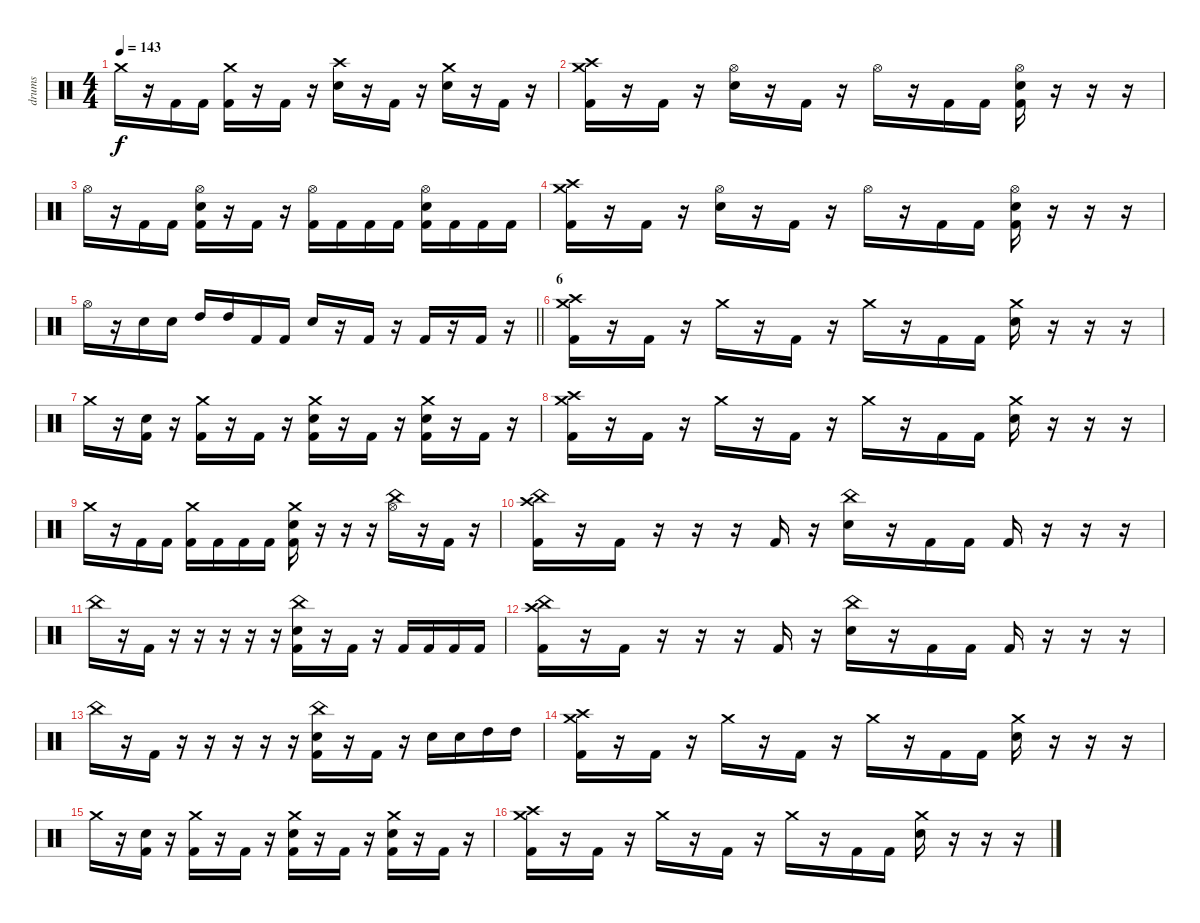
\track ("drums" "drums") {instrument percussion}
\staff {score}
\articulation defaults
\ts (4 4)
\tempo 143
\clef neutral
\ks c "Crash medium (hit)".16{dy f}
r.16 "Kick (hit) 2".16 "Kick (hit) 2".16 ("Crash medium (hit)" "Kick (hit) 2").16 r.16 "Kick (hit) 2".16 r.16 ("Crash high (hit)" "Electric Snare (hit)").16 r.16 "Kick (hit) 2".16 r.16 ("Crash medium (hit)" "Electric Snare (hit)").16 r.16 "Kick (hit) 2".16 r.16 |
("Crash high (hit)" "Crash medium (hit)" "Kick (hit) 2").16 r.16 "Kick (hit) 2".16 r.16 ("Hi-Hat (open)" "Electric Snare (hit)").16 r.16 "Kick (hit) 2".16 r.16 "Hi-Hat (open)".16 r.16 "Kick (hit) 2".16 "Kick (hit) 2".16 ("Hi-Hat (open)" "Electric Snare (hit)" "Kick (hit) 2").16 r.16 r.16 r.16 |
"Hi-Hat (open)".16 r.16 "Kick (hit) 2".16 "Kick (hit) 2".16 ("Hi-Hat (open)" "Electric Snare (hit)" "Kick (hit) 2").16 r.16 "Kick (hit) 2".16 r.16 ("Hi-Hat (open)" "Kick (hit) 2").16 "Kick (hit) 2".16 "Kick (hit) 2".16 "Kick (hit) 2".16 ("Hi-Hat (open)" "Electric Snare (hit)" "Kick (hit) 2").16 "Kick (hit) 2".16 "Kick (hit) 2".16 "Kick (hit) 2".16 |
("Crash medium (hit)" "Crash high (hit)" "Kick (hit) 2").16 r.16 "Kick (hit) 2".16 r.16 ("Hi-Hat (open)" "Electric Snare (hit)").16 r.16 "Kick (hit) 2".16 r.16 "Hi-Hat (open)".16 r.16 "Kick (hit) 2".16 "Kick (hit) 2".16 ("Hi-Hat (open)" "Electric Snare (hit)" "Kick (hit) 2").16 r.16 r.16 r.16 |
\barLineRight lightlight "Hi-Hat (open)".16
r.16 "Electric Snare (hit)".16 "Electric Snare (hit)".16 "High Tom (hit)".16 "High Tom (hit)".16 "Kick (hit) 2".16 "Kick (hit) 2".16 "Electric Snare (hit)".16 r.16 "Kick (hit) 2".16 r.16 "Kick (hit) 2".16 r.16 "Kick (hit) 2".16 r.16 |
\section ("" "6")
("Crash medium (hit)" "Crash high (hit)" "Kick (hit) 2").16 r.16 "Kick (hit) 2".16 r.16 "Crash medium (hit)".16 r.16 "Kick (hit) 2".16 r.16 "Crash medium (hit)".16 r.16 "Kick (hit) 2".16 "Kick (hit) 2".16 ("Crash medium (hit)" "Electric Snare (hit)").16 r.16 r.16 r.16 |
"Crash medium (hit)".16 r.16 ("Electric Snare (hit)" "Kick (hit) 2").16 r.16 ("Crash medium (hit)" "Kick (hit) 2").16 r.16 "Kick (hit) 2".16 r.16 ("Crash medium (hit)" "Electric Snare (hit)" "Kick (hit) 2").16 r.16 "Kick (hit) 2".16 r.16 ("Crash medium (hit)" "Electric Snare (hit)" "Kick (hit) 2").16 r.16 "Kick (hit) 2".16 r.16 |
("Crash medium (hit)" "Crash high (hit)" "Kick (hit) 2").16 r.16 "Kick (hit) 2".16 r.16 "Crash medium (hit)".16 r.16 "Kick (hit) 2".16 r.16 "Crash medium (hit)".16 r.16 "Kick (hit) 2".16 "Kick (hit) 2".16 ("Crash medium (hit)" "Electric Snare (hit)").16 r.16 r.16 r.16 |
"Crash medium (hit)".16 r.16 "Kick (hit) 2".16 "Kick (hit) 2".16 ("Crash medium (hit)" "Kick (hit) 2").16 "Kick (hit) 2".16 "Kick (hit) 2".16 "Kick (hit) 2".16 ("Crash medium (hit)" "Electric Snare (hit)" "Kick (hit) 2").16 r.16 r.16 r.16 ("China (hit)" "Hi-Hat (open)").16 r.16 "Kick (hit) 2".16 r.16 |
("China (hit)" "Crash high (hit)" "Kick (hit) 2").16 r.16 "Kick (hit) 2".16 r.16 r.16 r.16 "Kick (hit) 2".16 r.16 ("China (hit)" "Electric Snare (hit)").16 r.16 "Kick (hit) 2".16 "Kick (hit) 2".16 "Kick (hit) 2".16 r.16 r.16 r.16 |
"China (hit)".16 r.16 "Kick (hit) 2".16 r.16 r.16 r.16 r.16 r.16 ("China (hit)" "Electric Snare (hit)" "Kick (hit) 2").16 r.16 "Kick (hit) 2".16 r.16 "Kick (hit) 2".16 "Kick (hit) 2".16 "Kick (hit) 2".16 "Kick (hit) 2".16 |
("China (hit)" "Crash high (hit)" "Kick (hit) 2").16 r.16 "Kick (hit) 2".16 r.16 r.16 r.16 "Kick (hit) 2".16 r.16 ("China (hit)" "Electric Snare (hit)").16 r.16 "Kick (hit) 2".16 "Kick (hit) 2".16 "Kick (hit) 2".16 r.16 r.16 r.16 |
"China (hit)".16 r.16 "Kick (hit) 2".16 r.16 r.16 r.16 r.16 r.16 ("China (hit)" "Electric Snare (hit)" "Kick (hit) 2").16 r.16 "Kick (hit) 2".16 r.16 "Electric Snare (hit)".16 "Electric Snare (hit)".16 "High Tom (hit)".16 "High Tom (hit)".16 |
("Crash medium (hit)" "Crash high (hit)" "Kick (hit) 2").16 r.16 "Kick (hit) 2".16 r.16 "Crash medium (hit)".16 r.16 "Kick (hit) 2".16 r.16 "Crash medium (hit)".16 r.16 "Kick (hit) 2".16 "Kick (hit) 2".16 ("Crash medium (hit)" "Electric Snare (hit)").16 r.16 r.16 r.16 |
"Crash medium (hit)".16 r.16 ("Electric Snare (hit)" "Kick (hit) 2").16 r.16 ("Crash medium (hit)" "Kick (hit) 2").16 r.16 "Kick (hit) 2".16 r.16 ("Crash medium (hit)" "Electric Snare (hit)" "Kick (hit) 2").16 r.16 "Kick (hit) 2".16 r.16 ("Crash medium (hit)" "Electric Snare (hit)" "Kick (hit) 2").16 r.16 "Kick (hit) 2".16 r.16 |
("Crash medium (hit)" "Crash high (hit)" "Kick (hit) 2").16 r.16 "Kick (hit) 2".16 r.16 "Crash medium (hit)".16 r.16 "Kick (hit) 2".16 r.16 "Crash medium (hit)".16 r.16 "Kick (hit) 2".16 "Kick (hit) 2".16 ("Crash medium (hit)" "Electric Snare (hit)").16 r.16 r.16 r.16
